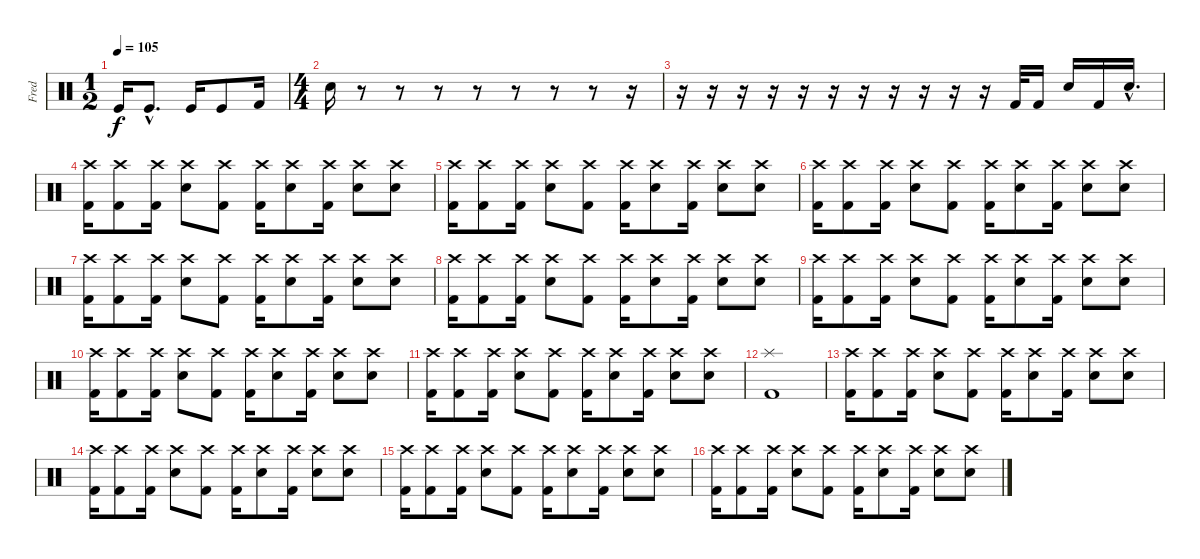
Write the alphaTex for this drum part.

\track ("Fred" "Fred") {instrument percussion}
\staff {score}
\articulation defaults
\ts (1 2)
\tempo 105
\clef neutral
\ks c "Kick (hit)".16{dy f} "Kick (hit)"{hac}.8{d} "Kick (hit)".16 "Kick (hit)".8 "Kick (hit) 2".16
|
\ts (4 4)
"Electric Snare (hit)".16 r.8 r.8 r.8 r.8 r.8 r.8 r.8 r.16 |
r.16 r.16 r.16 r.16 r.16 r.16 r.16 r.16 r.16 r.16 r.16 "Kick (hit) 2".32 "Kick (hit) 2".16 "Electric Snare (hit)".16 "Kick (hit) 2".16 "Electric Snare (hit)"{hac}.16{d} |
("Crash high (hit)" "Kick (hit) 2").16 ("Crash high (hit)" "Kick (hit) 2").8 ("Crash high (hit)" "Kick (hit) 2").16 ("Crash high (hit)" "Electric Snare (hit)").8 ("Crash high (hit)" "Kick (hit) 2").8 ("Crash high (hit)" "Kick (hit) 2").16 ("Crash high (hit)" "Electric Snare (hit)").8 ("Crash high (hit)" "Kick (hit) 2").16 ("Crash high (hit)" "Electric Snare (hit)").8 ("Crash high (hit)" "Electric Snare (hit)").8 |
("Crash high (hit)" "Kick (hit) 2").16 ("Crash high (hit)" "Kick (hit) 2").8 ("Crash high (hit)" "Kick (hit) 2").16 ("Crash high (hit)" "Electric Snare (hit)").8 ("Crash high (hit)" "Kick (hit) 2").8 ("Crash high (hit)" "Kick (hit) 2").16 ("Crash high (hit)" "Electric Snare (hit)").8 ("Crash high (hit)" "Kick (hit) 2").16 ("Crash high (hit)" "Electric Snare (hit)").8 ("Crash high (hit)" "Electric Snare (hit)").8 |
("Crash high (hit)" "Kick (hit) 2").16 ("Crash high (hit)" "Kick (hit) 2").8 ("Crash high (hit)" "Kick (hit) 2").16 ("Crash high (hit)" "Electric Snare (hit)").8 ("Crash high (hit)" "Kick (hit) 2").8 ("Crash high (hit)" "Kick (hit) 2").16 ("Crash high (hit)" "Electric Snare (hit)").8 ("Crash high (hit)" "Kick (hit) 2").16 ("Crash high (hit)" "Electric Snare (hit)").8 ("Crash high (hit)" "Electric Snare (hit)").8 |
("Crash high (hit)" "Kick (hit) 2").16 ("Crash high (hit)" "Kick (hit) 2").8 ("Crash high (hit)" "Kick (hit) 2").16 ("Crash high (hit)" "Electric Snare (hit)").8 ("Crash high (hit)" "Kick (hit) 2").8 ("Crash high (hit)" "Kick (hit) 2").16 ("Crash high (hit)" "Electric Snare (hit)").8 ("Crash high (hit)" "Kick (hit) 2").16 ("Crash high (hit)" "Electric Snare (hit)").8 ("Crash high (hit)" "Electric Snare (hit)").8 |
("Crash high (hit)" "Kick (hit) 2").16 ("Crash high (hit)" "Kick (hit) 2").8 ("Crash high (hit)" "Kick (hit) 2").16 ("Crash high (hit)" "Electric Snare (hit)").8 ("Crash high (hit)" "Kick (hit) 2").8 ("Crash high (hit)" "Kick (hit) 2").16 ("Crash high (hit)" "Electric Snare (hit)").8 ("Crash high (hit)" "Kick (hit) 2").16 ("Crash high (hit)" "Electric Snare (hit)").8 ("Crash high (hit)" "Electric Snare (hit)").8 |
("Crash high (hit)" "Kick (hit) 2").16 ("Crash high (hit)" "Kick (hit) 2").8 ("Crash high (hit)" "Kick (hit) 2").16 ("Crash high (hit)" "Electric Snare (hit)").8 ("Crash high (hit)" "Kick (hit) 2").8 ("Crash high (hit)" "Kick (hit) 2").16 ("Crash high (hit)" "Electric Snare (hit)").8 ("Crash high (hit)" "Kick (hit) 2").16 ("Crash high (hit)" "Electric Snare (hit)").8 ("Crash high (hit)" "Electric Snare (hit)").8 |
("Crash high (hit)" "Kick (hit) 2").16 ("Crash high (hit)" "Kick (hit) 2").8 ("Crash high (hit)" "Kick (hit) 2").16 ("Crash high (hit)" "Electric Snare (hit)").8 ("Crash high (hit)" "Kick (hit) 2").8 ("Crash high (hit)" "Kick (hit) 2").16 ("Crash high (hit)" "Electric Snare (hit)").8 ("Crash high (hit)" "Kick (hit) 2").16 ("Crash high (hit)" "Electric Snare (hit)").8 ("Crash high (hit)" "Electric Snare (hit)").8 |
("Crash high (hit)" "Kick (hit) 2").16 ("Crash high (hit)" "Kick (hit) 2").8 ("Crash high (hit)" "Kick (hit) 2").16 ("Crash high (hit)" "Electric Snare (hit)").8 ("Crash high (hit)" "Kick (hit) 2").8 ("Crash high (hit)" "Kick (hit) 2").16 ("Crash high (hit)" "Electric Snare (hit)").8 ("Crash high (hit)" "Kick (hit) 2").16 ("Crash high (hit)" "Electric Snare (hit)").8 ("Crash high (hit)" "Electric Snare (hit)").8 |
("Splash (hit)" "Kick (hit) 2").1 |
("Crash high (hit)" "Kick (hit) 2").16 ("Crash high (hit)" "Kick (hit) 2").8 ("Crash high (hit)" "Kick (hit) 2").16 ("Crash high (hit)" "Electric Snare (hit)").8 ("Crash high (hit)" "Kick (hit) 2").8 ("Crash high (hit)" "Kick (hit) 2").16 ("Crash high (hit)" "Electric Snare (hit)").8 ("Crash high (hit)" "Kick (hit) 2").16 ("Crash high (hit)" "Electric Snare (hit)").8 ("Crash high (hit)" "Electric Snare (hit)").8 |
("Crash high (hit)" "Kick (hit) 2").16 ("Crash high (hit)" "Kick (hit) 2").8 ("Crash high (hit)" "Kick (hit) 2").16 ("Crash high (hit)" "Electric Snare (hit)").8 ("Crash high (hit)" "Kick (hit) 2").8 ("Crash high (hit)" "Kick (hit) 2").16 ("Crash high (hit)" "Electric Snare (hit)").8 ("Crash high (hit)" "Kick (hit) 2").16 ("Crash high (hit)" "Electric Snare (hit)").8 ("Crash high (hit)" "Electric Snare (hit)").8 |
("Crash high (hit)" "Kick (hit) 2").16 ("Crash high (hit)" "Kick (hit) 2").8 ("Crash high (hit)" "Kick (hit) 2").16 ("Crash high (hit)" "Electric Snare (hit)").8 ("Crash high (hit)" "Kick (hit) 2").8 ("Crash high (hit)" "Kick (hit) 2").16 ("Crash high (hit)" "Electric Snare (hit)").8 ("Crash high (hit)" "Kick (hit) 2").16 ("Crash high (hit)" "Electric Snare (hit)").8 ("Crash high (hit)" "Electric Snare (hit)").8 |
("Crash high (hit)" "Kick (hit) 2").16 ("Crash high (hit)" "Kick (hit) 2").8 ("Crash high (hit)" "Kick (hit) 2").16 ("Crash high (hit)" "Electric Snare (hit)").8 ("Crash high (hit)" "Kick (hit) 2").8 ("Crash high (hit)" "Kick (hit) 2").16 ("Crash high (hit)" "Electric Snare (hit)").8 ("Crash high (hit)" "Kick (hit) 2").16 ("Crash high (hit)" "Electric Snare (hit)").8 ("Crash high (hit)" "Electric Snare (hit)").8
